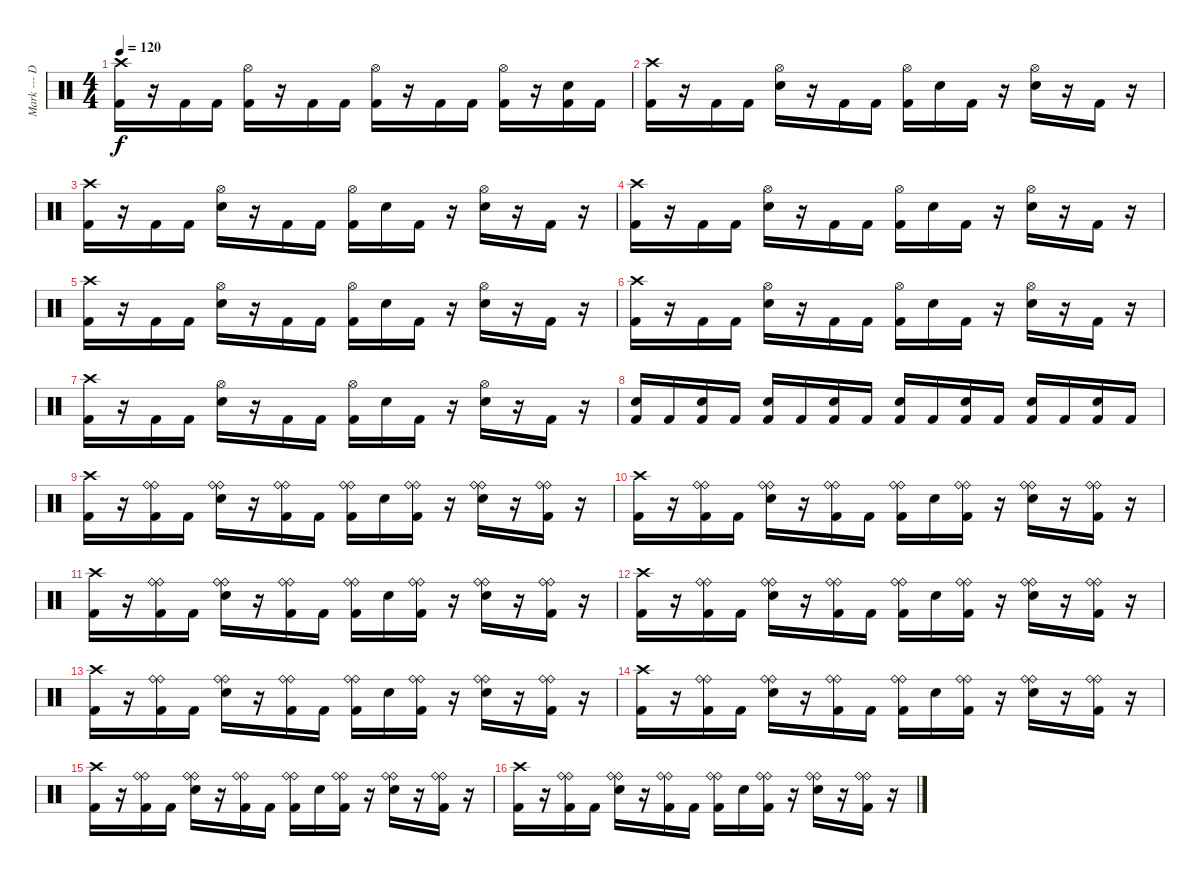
\track ("Mark --- Drums" "Mark --- D") {instrument percussion}
\staff {score}
\articulation defaults
\ts (4 4)
\tempo 120
\clef neutral
\ks c
("Kick (hit) 2" "Crash high (hit)").16{dy f} r.16 "Kick (hit) 2".16 "Kick (hit) 2".16 ("Kick (hit) 2" "Hi-Hat (open)").16 r.16 "Kick (hit) 2".16 "Kick (hit) 2".16 ("Kick (hit) 2" "Hi-Hat (open)").16 r.16 "Kick (hit) 2".16 "Kick (hit) 2".16 ("Kick (hit) 2" "Hi-Hat (open)").16 r.16 ("Electric Snare (hit)" "Kick (hit) 2").16 "Kick (hit) 2".16 |
("Crash high (hit)" "Kick (hit) 2").16 r.16 "Kick (hit) 2".16 "Kick (hit) 2".16 ("Hi-Hat (open)" "Electric Snare (hit)").16 r.16 "Kick (hit) 2".16 "Kick (hit) 2".16 ("Hi-Hat (open)" "Kick (hit) 2").16 "Electric Snare (hit)".16 "Kick (hit) 2".16 r.16 ("Hi-Hat (open)" "Electric Snare (hit)").16 r.16 "Kick (hit) 2".16 r.16 |
("Crash high (hit)" "Kick (hit) 2").16 r.16 "Kick (hit) 2".16 "Kick (hit) 2".16 ("Hi-Hat (open)" "Electric Snare (hit)").16 r.16 "Kick (hit) 2".16 "Kick (hit) 2".16 ("Hi-Hat (open)" "Kick (hit) 2").16 "Electric Snare (hit)".16 "Kick (hit) 2".16 r.16 ("Hi-Hat (open)" "Electric Snare (hit)").16 r.16 "Kick (hit) 2".16 r.16 |
("Crash high (hit)" "Kick (hit) 2").16 r.16 "Kick (hit) 2".16 "Kick (hit) 2".16 ("Hi-Hat (open)" "Electric Snare (hit)").16 r.16 "Kick (hit) 2".16 "Kick (hit) 2".16 ("Hi-Hat (open)" "Kick (hit) 2").16 "Electric Snare (hit)".16 "Kick (hit) 2".16 r.16 ("Hi-Hat (open)" "Electric Snare (hit)").16 r.16 "Kick (hit) 2".16 r.16 |
("Crash high (hit)" "Kick (hit) 2").16 r.16 "Kick (hit) 2".16 "Kick (hit) 2".16 ("Hi-Hat (open)" "Electric Snare (hit)").16 r.16 "Kick (hit) 2".16 "Kick (hit) 2".16 ("Hi-Hat (open)" "Kick (hit) 2").16 "Electric Snare (hit)".16 "Kick (hit) 2".16 r.16 ("Hi-Hat (open)" "Electric Snare (hit)").16 r.16 "Kick (hit) 2".16 r.16 |
("Crash high (hit)" "Kick (hit) 2").16 r.16 "Kick (hit) 2".16 "Kick (hit) 2".16 ("Hi-Hat (open)" "Electric Snare (hit)").16 r.16 "Kick (hit) 2".16 "Kick (hit) 2".16 ("Hi-Hat (open)" "Kick (hit) 2").16 "Electric Snare (hit)".16 "Kick (hit) 2".16 r.16 ("Hi-Hat (open)" "Electric Snare (hit)").16 r.16 "Kick (hit) 2".16 r.16 |
("Crash high (hit)" "Kick (hit) 2").16 r.16 "Kick (hit) 2".16 "Kick (hit) 2".16 ("Hi-Hat (open)" "Electric Snare (hit)").16 r.16 "Kick (hit) 2".16 "Kick (hit) 2".16 ("Hi-Hat (open)" "Kick (hit) 2").16 "Electric Snare (hit)".16 "Kick (hit) 2".16 r.16 ("Hi-Hat (open)" "Electric Snare (hit)").16 r.16 "Kick (hit) 2".16 r.16 |
("Electric Snare (hit)" "Kick (hit) 2").16 "Kick (hit) 2".16 ("Electric Snare (hit)" "Kick (hit) 2").16 "Kick (hit) 2".16 ("Electric Snare (hit)" "Kick (hit) 2").16 "Kick (hit) 2".16 ("Electric Snare (hit)" "Kick (hit) 2").16 "Kick (hit) 2".16 ("Electric Snare (hit)" "Kick (hit) 2").16 "Kick (hit) 2".16 ("Electric Snare (hit)" "Kick (hit) 2").16 "Kick (hit) 2".16 ("Electric Snare (hit)" "Kick (hit) 2").16 "Kick (hit) 2".16 ("Electric Snare (hit)" "Kick (hit) 2").16 "Kick (hit) 2".16 |
("Crash high (hit)" "Kick (hit) 2").16 r.16 ("Ride (bell)" "Ride (bell)" "Kick (hit) 2").16 "Kick (hit) 2".16 ("Ride (bell)" "Electric Snare (hit)" "Ride (bell)").16 r.16 ("Ride (bell)" "Ride (bell)" "Kick (hit) 2").16 "Kick (hit) 2".16 ("Ride (bell)" "Ride (bell)" "Kick (hit) 2").16 "Electric Snare (hit)".16 ("Ride (bell)" "Ride (bell)" "Kick (hit) 2").16 r.16 ("Ride (bell)" "Electric Snare (hit)" "Ride (bell)").16 r.16 ("Ride (bell)" "Ride (bell)" "Kick (hit) 2").16 r.16 |
("Crash high (hit)" "Kick (hit) 2").16 r.16 ("Ride (bell)" "Ride (bell)" "Kick (hit) 2").16 "Kick (hit) 2".16 ("Ride (bell)" "Electric Snare (hit)" "Ride (bell)").16 r.16 ("Ride (bell)" "Ride (bell)" "Kick (hit) 2").16 "Kick (hit) 2".16 ("Ride (bell)" "Ride (bell)" "Kick (hit) 2").16 "Electric Snare (hit)".16 ("Ride (bell)" "Ride (bell)" "Kick (hit) 2").16 r.16 ("Ride (bell)" "Electric Snare (hit)" "Ride (bell)").16 r.16 ("Ride (bell)" "Ride (bell)" "Kick (hit) 2").16 r.16 |
("Crash high (hit)" "Kick (hit) 2").16 r.16 ("Ride (bell)" "Ride (bell)" "Kick (hit) 2").16 "Kick (hit) 2".16 ("Ride (bell)" "Electric Snare (hit)" "Ride (bell)").16 r.16 ("Ride (bell)" "Ride (bell)" "Kick (hit) 2").16 "Kick (hit) 2".16 ("Ride (bell)" "Ride (bell)" "Kick (hit) 2").16 "Electric Snare (hit)".16 ("Ride (bell)" "Ride (bell)" "Kick (hit) 2").16 r.16 ("Ride (bell)" "Electric Snare (hit)" "Ride (bell)").16 r.16 ("Ride (bell)" "Ride (bell)" "Kick (hit) 2").16 r.16 |
("Crash high (hit)" "Kick (hit) 2").16 r.16 ("Ride (bell)" "Ride (bell)" "Kick (hit) 2").16 "Kick (hit) 2".16 ("Ride (bell)" "Electric Snare (hit)" "Ride (bell)").16 r.16 ("Ride (bell)" "Ride (bell)" "Kick (hit) 2").16 "Kick (hit) 2".16 ("Ride (bell)" "Ride (bell)" "Kick (hit) 2").16 "Electric Snare (hit)".16 ("Ride (bell)" "Ride (bell)" "Kick (hit) 2").16 r.16 ("Ride (bell)" "Electric Snare (hit)" "Ride (bell)").16 r.16 ("Ride (bell)" "Ride (bell)" "Kick (hit) 2").16 r.16 |
("Crash high (hit)" "Kick (hit) 2").16 r.16 ("Ride (bell)" "Ride (bell)" "Kick (hit) 2").16 "Kick (hit) 2".16 ("Ride (bell)" "Electric Snare (hit)" "Ride (bell)").16 r.16 ("Ride (bell)" "Ride (bell)" "Kick (hit) 2").16 "Kick (hit) 2".16 ("Ride (bell)" "Ride (bell)" "Kick (hit) 2").16 "Electric Snare (hit)".16 ("Ride (bell)" "Ride (bell)" "Kick (hit) 2").16 r.16 ("Ride (bell)" "Electric Snare (hit)" "Ride (bell)").16 r.16 ("Ride (bell)" "Ride (bell)" "Kick (hit) 2").16 r.16 |
("Crash high (hit)" "Kick (hit) 2").16 r.16 ("Ride (bell)" "Ride (bell)" "Kick (hit) 2").16 "Kick (hit) 2".16 ("Ride (bell)" "Electric Snare (hit)" "Ride (bell)").16 r.16 ("Ride (bell)" "Ride (bell)" "Kick (hit) 2").16 "Kick (hit) 2".16 ("Ride (bell)" "Ride (bell)" "Kick (hit) 2").16 "Electric Snare (hit)".16 ("Ride (bell)" "Ride (bell)" "Kick (hit) 2").16 r.16 ("Ride (bell)" "Electric Snare (hit)" "Ride (bell)").16 r.16 ("Ride (bell)" "Ride (bell)" "Kick (hit) 2").16 r.16 |
("Crash high (hit)" "Kick (hit) 2").16 r.16 ("Ride (bell)" "Ride (bell)" "Kick (hit) 2").16 "Kick (hit) 2".16 ("Ride (bell)" "Electric Snare (hit)" "Ride (bell)").16 r.16 ("Ride (bell)" "Ride (bell)" "Kick (hit) 2").16 "Kick (hit) 2".16 ("Ride (bell)" "Ride (bell)" "Kick (hit) 2").16 "Electric Snare (hit)".16 ("Ride (bell)" "Ride (bell)" "Kick (hit) 2").16 r.16 ("Ride (bell)" "Electric Snare (hit)" "Ride (bell)").16 r.16 ("Ride (bell)" "Ride (bell)" "Kick (hit) 2").16 r.16 |
("Crash high (hit)" "Kick (hit) 2").16 r.16 ("Ride (bell)" "Ride (bell)" "Kick (hit) 2").16 "Kick (hit) 2".16 ("Ride (bell)" "Electric Snare (hit)" "Ride (bell)").16 r.16 ("Ride (bell)" "Ride (bell)" "Kick (hit) 2").16 "Kick (hit) 2".16 ("Ride (bell)" "Ride (bell)" "Kick (hit) 2").16 "Electric Snare (hit)".16 ("Ride (bell)" "Ride (bell)" "Kick (hit) 2").16 r.16 ("Ride (bell)" "Electric Snare (hit)" "Ride (bell)").16 r.16 ("Ride (bell)" "Ride (bell)" "Kick (hit) 2").16 r.16
